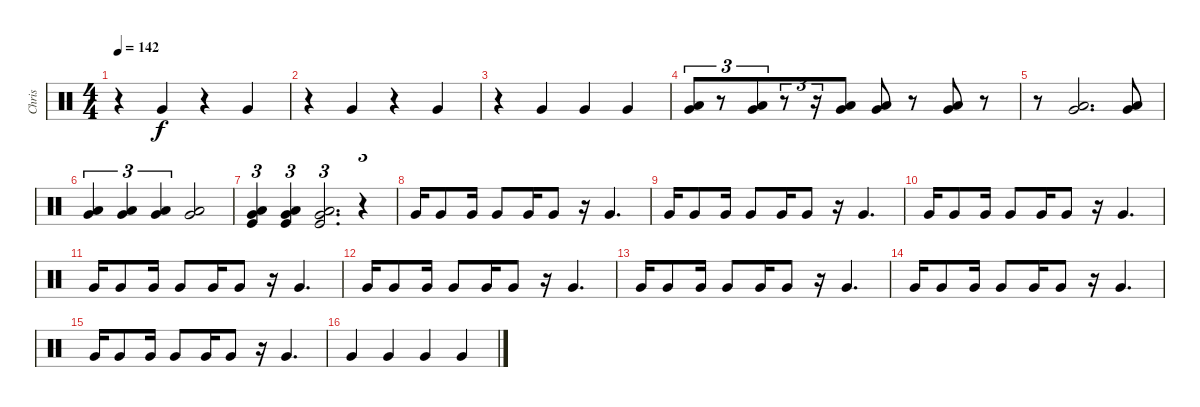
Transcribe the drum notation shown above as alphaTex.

\track ("Chris" "Chris") {instrument percussion}
\staff {score}
\articulation defaults
\ts (4 4)
\tempo 142
\clef neutral
\ks c
r.4{dy f} "Very Low Tom (hit)".4 r.4 "Very Low Tom (hit)".4 |
r.4 "Very Low Tom (hit)".4 r.4 "Very Low Tom (hit)".4 |
r.4 "Very Low Tom (hit)".4 "Very Low Tom (hit)".4 "Very Low Tom (hit)".4 |
("Very Low Tom (hit)" "Low Floor Tom (hit)").8{tu (3 2)} r.8{tu (3 2)} ("Very Low Tom (hit)" "Low Floor Tom (hit)").8{tu (3 2) beam merge} r.8{tu (3 2)} r.16{tu (3 2)} ("Very Low Tom (hit)" "Low Floor Tom (hit)").8 ("Very Low Tom (hit)" "Low Floor Tom (hit)").8 r.8 ("Very Low Tom (hit)" "Low Floor Tom (hit)").8 r.8 |
r.8 ("Very Low Tom (hit)" "Low Floor Tom (hit)").2{d} ("Very Low Tom (hit)" "Low Floor Tom (hit)").8 |
("Very Low Tom (hit)" "Low Floor Tom (hit)").4{tu (3 2)} ("Very Low Tom (hit)" "Low Floor Tom (hit)").4{tu (3 2)} ("Very Low Tom (hit)" "Low Floor Tom (hit)").4{tu (3 2)} ("Very Low Tom (hit)" "Low Floor Tom (hit)").2 |
("Very Low Tom (hit)" "Low Floor Tom (hit)" "Kick (hit)").4{tu (3 2)} ("Very Low Tom (hit)" "Low Floor Tom (hit)" "Kick (hit)").4{tu (3 2)} ("Very Low Tom (hit)" "Low Floor Tom (hit)" "Kick (hit)").2{d tu (3 2)} r.4{tu (3 2)} |
"Very Low Tom (hit)".16 "Very Low Tom (hit)".8 "Very Low Tom (hit)".16 "Very Low Tom (hit)".8 "Very Low Tom (hit)".16 "Very Low Tom (hit)".8 r.16 "Very Low Tom (hit)".4{d} |
"Very Low Tom (hit)".16 "Very Low Tom (hit)".8 "Very Low Tom (hit)".16 "Very Low Tom (hit)".8 "Very Low Tom (hit)".16 "Very Low Tom (hit)".8 r.16 "Very Low Tom (hit)".4{d} |
"Very Low Tom (hit)".16 "Very Low Tom (hit)".8 "Very Low Tom (hit)".16 "Very Low Tom (hit)".8 "Very Low Tom (hit)".16 "Very Low Tom (hit)".8 r.16 "Very Low Tom (hit)".4{d} |
"Very Low Tom (hit)".16 "Very Low Tom (hit)".8 "Very Low Tom (hit)".16 "Very Low Tom (hit)".8 "Very Low Tom (hit)".16 "Very Low Tom (hit)".8 r.16 "Very Low Tom (hit)".4{d} |
"Very Low Tom (hit)".16 "Very Low Tom (hit)".8 "Very Low Tom (hit)".16 "Very Low Tom (hit)".8 "Very Low Tom (hit)".16 "Very Low Tom (hit)".8 r.16 "Very Low Tom (hit)".4{d} |
"Very Low Tom (hit)".16 "Very Low Tom (hit)".8 "Very Low Tom (hit)".16 "Very Low Tom (hit)".8 "Very Low Tom (hit)".16 "Very Low Tom (hit)".8 r.16 "Very Low Tom (hit)".4{d} |
"Very Low Tom (hit)".16 "Very Low Tom (hit)".8 "Very Low Tom (hit)".16 "Very Low Tom (hit)".8 "Very Low Tom (hit)".16 "Very Low Tom (hit)".8 r.16 "Very Low Tom (hit)".4{d} |
"Very Low Tom (hit)".16 "Very Low Tom (hit)".8 "Very Low Tom (hit)".16 "Very Low Tom (hit)".8 "Very Low Tom (hit)".16 "Very Low Tom (hit)".8 r.16 "Very Low Tom (hit)".4{d} |
"Very Low Tom (hit)".4 "Very Low Tom (hit)".4 "Very Low Tom (hit)".4 "Very Low Tom (hit)".4
